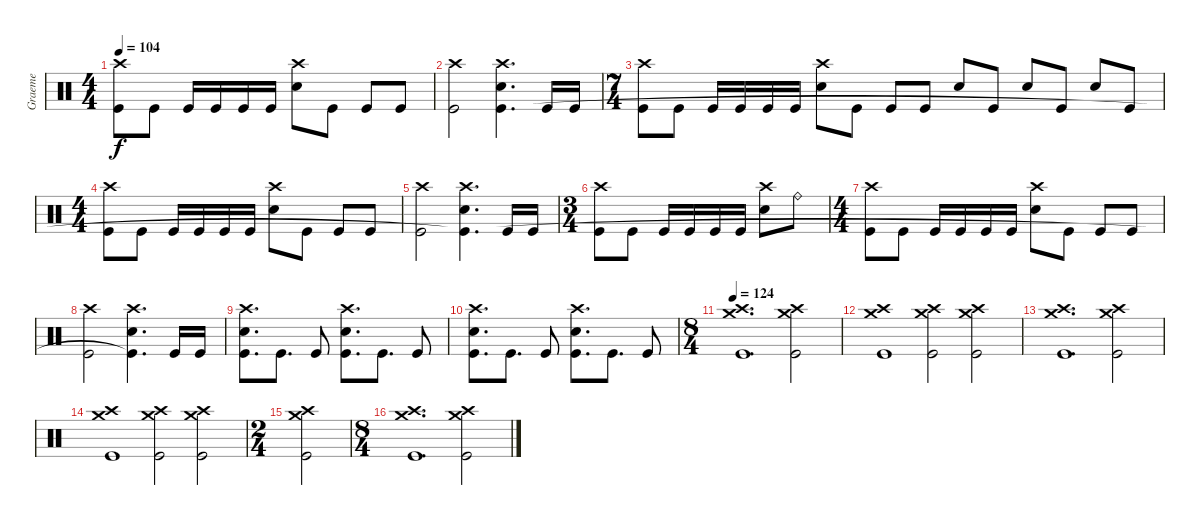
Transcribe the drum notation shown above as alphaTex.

\track ("Graeme" "Graeme") {instrument percussion}
\staff {score}
\articulation defaults
\ts (4 4)
\tempo 104
\clef neutral
\ks c
("Crash high (hit)" "Kick (hit)").8{dy f} "Kick (hit)".8 "Kick (hit)".16 "Kick (hit)".16 "Kick (hit)".16 "Kick (hit)".16 ("Crash high (hit)" "Snare (hit) 2").8 "Kick (hit)".8 "Kick (hit)".8 "Kick (hit)".8 |
("Crash high (hit)" "Kick (hit)").2 ("Crash high (hit)" "Snare (hit) 2" "Kick (hit)").4{d} "Kick (hit)".16 "Kick (hit)".16 |
\ts (7 4)
("Crash high (hit)" "Kick (hit)").8 "Kick (hit)".8 "Kick (hit)".16 "Kick (hit)".16 "Kick (hit)".16 "Kick (hit)".16 ("Crash high (hit)" "Snare (hit) 2").8 "Kick (hit)".8 "Kick (hit)".8 "Kick (hit)".8 "Snare (hit) 2".8 "Kick (hit)".8 "Snare (hit) 2".8 "Kick (hit)".8 "Snare (hit) 2".8 "Kick (hit)".8 |
\ts (4 4)
("Crash high (hit)" "Kick (hit)").8 "Kick (hit)".8 "Kick (hit)".16 "Kick (hit)".16 "Kick (hit)".16 "Kick (hit)".16 ("Crash high (hit)" "Snare (hit) 2").8 "Kick (hit)".8 "Kick (hit)".8 "Kick (hit)".8 |
("Crash high (hit)" "Kick (hit)").2 ("Crash high (hit)" "Snare (hit) 2" "Kick (hit)"{t}).4{d} "Kick (hit)".16 "Kick (hit)".16 |
\ts (3 4)
("Crash high (hit)" "Kick (hit)").8 "Kick (hit)".8 "Kick (hit)".16 "Kick (hit)".16 "Kick (hit)".16 "Kick (hit)".16 ("Crash high (hit)" "Snare (hit) 2").8 "Ride (bell)".8{volume 16} |
\ts (4 4)
("Crash high (hit)" "Kick (hit)").8 "Kick (hit)".8 "Kick (hit)".16 "Kick (hit)".16 "Kick (hit)".16 "Kick (hit)".16 ("Crash high (hit)" "Snare (hit) 2").8 "Kick (hit)".8 "Kick (hit)".8 "Kick (hit)".8 |
("Crash high (hit)" "Kick (hit)").2 ("Crash high (hit)" "Snare (hit) 2" "Kick (hit)"{t}).4{d} "Kick (hit)".16 "Kick (hit)".16 |
("Crash high (hit)" "Snare (hit) 2" "Kick (hit)").8{d} "Kick (hit)".8{d} "Kick (hit)".8 ("Crash high (hit)" "Snare (hit) 2" "Kick (hit)").8{d} "Kick (hit)".8{d} "Kick (hit)".8 |
("Crash high (hit)" "Snare (hit) 2" "Kick (hit)").8{d} "Kick (hit)".8{d} "Kick (hit)".8 ("Crash high (hit)" "Snare (hit) 2" "Kick (hit)").8{d} "Kick (hit)".8{d} "Kick (hit)".8 |
\ts (8 4)
\tempo 124
("Crash medium (hit)" "Crash high (hit)" "Kick (hit)").1{d} ("Crash medium (hit)" "Crash high (hit)" "Kick (hit)").2 |
("Crash medium (hit)" "Crash high (hit)" "Kick (hit)").1 ("Crash medium (hit)" "Crash high (hit)" "Kick (hit)").2 ("Crash medium (hit)" "Crash high (hit)" "Kick (hit)").2 |
("Crash medium (hit)" "Crash high (hit)" "Kick (hit)").1{d} ("Crash medium (hit)" "Crash high (hit)" "Kick (hit)").2 |
("Crash medium (hit)" "Crash high (hit)" "Kick (hit)").1 ("Crash medium (hit)" "Crash high (hit)" "Kick (hit)").2 ("Crash medium (hit)" "Crash high (hit)" "Kick (hit)").2 |
\ts (2 4)
("Crash medium (hit)" "Crash high (hit)" "Kick (hit)").2 |
\ts (8 4)
("Crash medium (hit)" "Crash high (hit)" "Kick (hit)").1{d} ("Crash medium (hit)" "Crash high (hit)" "Kick (hit)").2
